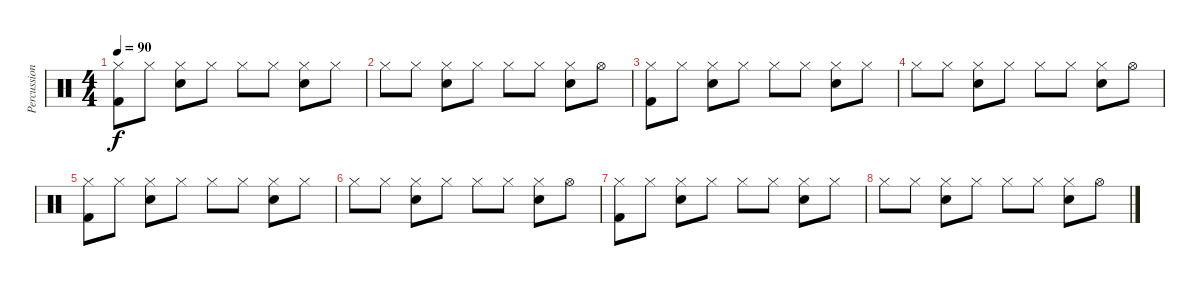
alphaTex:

\track ("Percussion" "Percussion") {instrument percussion}
\staff {score}
\articulation defaults
\ts (4 4)
\tempo 90
\clef neutral
\ks c
("Hi-Hat (closed)" "Kick (hit) 2").8{dy f} "Hi-Hat (closed)".8 ("Hi-Hat (closed)" "Snare (hit) 2").8 "Hi-Hat (closed)".8 "Hi-Hat (closed)".8 "Hi-Hat (closed)".8 ("Hi-Hat (closed)" "Snare (hit) 2").8 "Hi-Hat (closed)".8 |
"Hi-Hat (closed)".8 "Hi-Hat (closed)".8 ("Hi-Hat (closed)" "Snare (hit) 2").8 "Hi-Hat (closed)".8 "Hi-Hat (closed)".8 "Hi-Hat (closed)".8 ("Hi-Hat (closed)" "Snare (hit) 2").8 "Hi-Hat (open)".8 |
("Hi-Hat (closed)" "Kick (hit) 2").8 "Hi-Hat (closed)".8 ("Hi-Hat (closed)" "Snare (hit) 2").8 "Hi-Hat (closed)".8 "Hi-Hat (closed)".8 "Hi-Hat (closed)".8 ("Hi-Hat (closed)" "Snare (hit) 2").8 "Hi-Hat (closed)".8 |
"Hi-Hat (closed)".8 "Hi-Hat (closed)".8 ("Hi-Hat (closed)" "Snare (hit) 2").8 "Hi-Hat (closed)".8 "Hi-Hat (closed)".8 "Hi-Hat (closed)".8 ("Hi-Hat (closed)" "Snare (hit) 2").8 "Hi-Hat (open)".8 |
("Hi-Hat (closed)" "Kick (hit) 2").8 "Hi-Hat (closed)".8 ("Hi-Hat (closed)" "Snare (hit) 2").8 "Hi-Hat (closed)".8 "Hi-Hat (closed)".8 "Hi-Hat (closed)".8 ("Hi-Hat (closed)" "Snare (hit) 2").8 "Hi-Hat (closed)".8 |
"Hi-Hat (closed)".8 "Hi-Hat (closed)".8 ("Hi-Hat (closed)" "Snare (hit) 2").8 "Hi-Hat (closed)".8 "Hi-Hat (closed)".8 "Hi-Hat (closed)".8 ("Hi-Hat (closed)" "Snare (hit) 2").8 "Hi-Hat (open)".8 |
("Hi-Hat (closed)" "Kick (hit) 2").8 "Hi-Hat (closed)".8 ("Hi-Hat (closed)" "Snare (hit) 2").8 "Hi-Hat (closed)".8 "Hi-Hat (closed)".8 "Hi-Hat (closed)".8 ("Hi-Hat (closed)" "Snare (hit) 2").8 "Hi-Hat (closed)".8 |
"Hi-Hat (closed)".8 "Hi-Hat (closed)".8 ("Hi-Hat (closed)" "Snare (hit) 2").8 "Hi-Hat (closed)".8 "Hi-Hat (closed)".8 "Hi-Hat (closed)".8 ("Hi-Hat (closed)" "Snare (hit) 2").8 "Hi-Hat (open)".8
